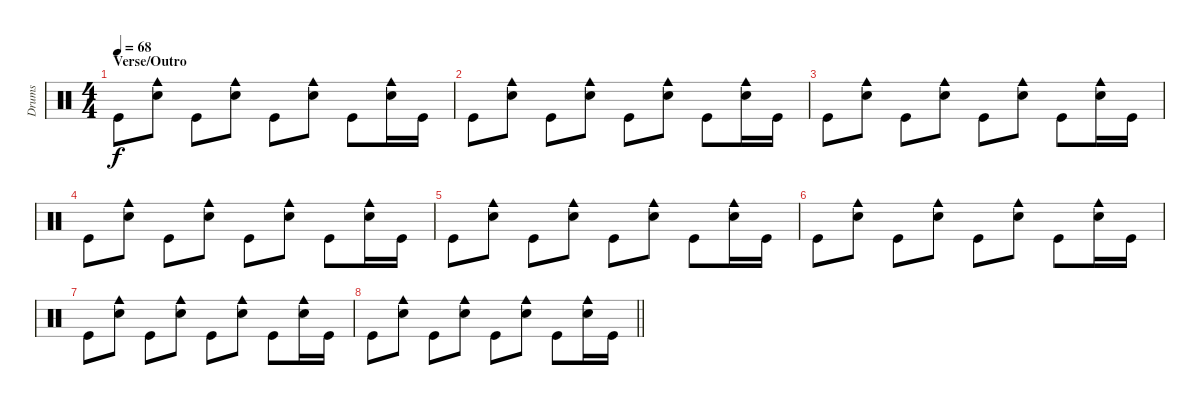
\track ("Drums" "Drums") {instrument percussion}
\staff {score}
\articulation defaults
\ts (4 4)
\section ("" "Verse/Outro")
\tempo 68
\clef neutral
\ks c "Kick (hit)".8{dy f}
("Cowbell medium (hit)" "Electric Snare (hit)").8 "Kick (hit)".8 ("Cowbell medium (hit)" "Electric Snare (hit)").8 "Kick (hit)".8 ("Cowbell medium (hit)" "Electric Snare (hit)").8 "Kick (hit)".8 ("Cowbell medium (hit)" "Electric Snare (hit)").16 "Kick (hit)".16 |
"Kick (hit)".8 ("Cowbell medium (hit)" "Electric Snare (hit)").8 "Kick (hit)".8 ("Cowbell medium (hit)" "Electric Snare (hit)").8 "Kick (hit)".8 ("Cowbell medium (hit)" "Electric Snare (hit)").8 "Kick (hit)".8 ("Cowbell medium (hit)" "Electric Snare (hit)").16 "Kick (hit)".16 |
"Kick (hit)".8 ("Cowbell medium (hit)" "Electric Snare (hit)").8 "Kick (hit)".8 ("Cowbell medium (hit)" "Electric Snare (hit)").8 "Kick (hit)".8 ("Cowbell medium (hit)" "Electric Snare (hit)").8 "Kick (hit)".8 ("Cowbell medium (hit)" "Electric Snare (hit)").16 "Kick (hit)".16 |
"Kick (hit)".8 ("Cowbell medium (hit)" "Electric Snare (hit)").8 "Kick (hit)".8 ("Cowbell medium (hit)" "Electric Snare (hit)").8 "Kick (hit)".8 ("Cowbell medium (hit)" "Electric Snare (hit)").8 "Kick (hit)".8 ("Cowbell medium (hit)" "Electric Snare (hit)").16 "Kick (hit)".16 |
"Kick (hit)".8 ("Cowbell medium (hit)" "Electric Snare (hit)").8 "Kick (hit)".8 ("Cowbell medium (hit)" "Electric Snare (hit)").8 "Kick (hit)".8 ("Cowbell medium (hit)" "Electric Snare (hit)").8 "Kick (hit)".8 ("Cowbell medium (hit)" "Electric Snare (hit)").16 "Kick (hit)".16 |
"Kick (hit)".8 ("Cowbell medium (hit)" "Electric Snare (hit)").8 "Kick (hit)".8 ("Cowbell medium (hit)" "Electric Snare (hit)").8 "Kick (hit)".8 ("Cowbell medium (hit)" "Electric Snare (hit)").8 "Kick (hit)".8 ("Cowbell medium (hit)" "Electric Snare (hit)").16 "Kick (hit)".16 |
"Kick (hit)".8 ("Cowbell medium (hit)" "Electric Snare (hit)").8 "Kick (hit)".8 ("Cowbell medium (hit)" "Electric Snare (hit)").8 "Kick (hit)".8 ("Cowbell medium (hit)" "Electric Snare (hit)").8 "Kick (hit)".8 ("Cowbell medium (hit)" "Electric Snare (hit)").16 "Kick (hit)".16 |
\barLineRight lightlight "Kick (hit)".8
("Cowbell medium (hit)" "Electric Snare (hit)").8 "Kick (hit)".8 ("Cowbell medium (hit)" "Electric Snare (hit)").8 "Kick (hit)".8 ("Cowbell medium (hit)" "Electric Snare (hit)").8 "Kick (hit)".8 ("Cowbell medium (hit)" "Electric Snare (hit)").16 "Kick (hit)".16
